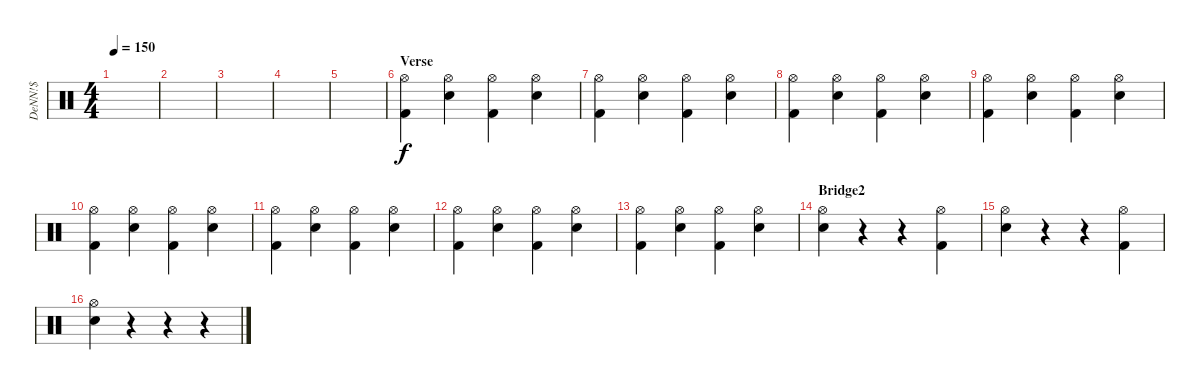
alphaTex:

\track ("DeNN!$" "DeNN!$") {instrument percussion}
\staff {score}
\articulation defaults
\ts (4 4)
\tempo 150
\clef neutral
\ks c
|
|
|
|
|
\section ("" "Verse")
("Kick (hit) 2" "Hi-Hat (open)").4 ("Snare (hit) 2" "Hi-Hat (open)").4 ("Kick (hit) 2" "Hi-Hat (open)").4 ("Snare (hit) 2" "Hi-Hat (open)").4 |
("Kick (hit) 2" "Hi-Hat (open)").4 ("Snare (hit) 2" "Hi-Hat (open)").4 ("Kick (hit) 2" "Hi-Hat (open)").4 ("Snare (hit) 2" "Hi-Hat (open)").4 |
("Kick (hit) 2" "Hi-Hat (open)").4 ("Snare (hit) 2" "Hi-Hat (open)").4 ("Kick (hit) 2" "Hi-Hat (open)").4 ("Snare (hit) 2" "Hi-Hat (open)").4 |
("Kick (hit) 2" "Hi-Hat (open)").4 ("Snare (hit) 2" "Hi-Hat (open)").4 ("Kick (hit) 2" "Hi-Hat (open)").4 ("Snare (hit) 2" "Hi-Hat (open)").4 |
("Kick (hit) 2" "Hi-Hat (open)").4 ("Snare (hit) 2" "Hi-Hat (open)").4 ("Kick (hit) 2" "Hi-Hat (open)").4 ("Snare (hit) 2" "Hi-Hat (open)").4 |
("Kick (hit) 2" "Hi-Hat (open)").4 ("Snare (hit) 2" "Hi-Hat (open)").4 ("Kick (hit) 2" "Hi-Hat (open)").4 ("Snare (hit) 2" "Hi-Hat (open)").4 |
("Kick (hit) 2" "Hi-Hat (open)").4 ("Snare (hit) 2" "Hi-Hat (open)").4 ("Kick (hit) 2" "Hi-Hat (open)").4 ("Snare (hit) 2" "Hi-Hat (open)").4 |
("Kick (hit) 2" "Hi-Hat (open)").4 ("Snare (hit) 2" "Hi-Hat (open)").4 ("Kick (hit) 2" "Hi-Hat (open)").4 ("Snare (hit) 2" "Hi-Hat (open)").4 |
\section ("" "Bridge2")
("Hi-Hat (open)" "Snare (hit) 2").4 r.4 r.4 ("Hi-Hat (open)" "Kick (hit) 2").4 |
("Hi-Hat (open)" "Snare (hit) 2").4 r.4 r.4 ("Hi-Hat (open)" "Kick (hit) 2").4 |
("Hi-Hat (open)" "Snare (hit) 2").4 r.4 r.4 r.4
